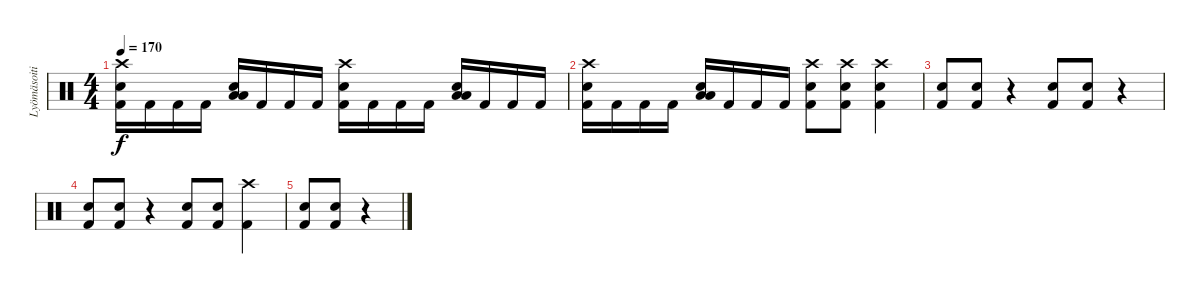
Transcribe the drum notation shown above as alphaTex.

\track ("Lyömäsoitin" "Lyömäsoiti") {instrument percussion}
\staff {score}
\articulation defaults
\ts (4 4)
\tempo 170
\clef neutral
\ks c
("Kick (hit) 2" "Snare (hit) 2" "Crash high (hit)").16{dy f} "Kick (hit) 2".16 "Kick (hit) 2".16 "Kick (hit) 2".16 ("Snare (hit) 2" "Low Floor Tom (hit)" "Low Floor Tom (hit)").16 "Kick (hit) 2".16 "Kick (hit) 2".16 "Kick (hit) 2".16 ("Kick (hit) 2" "Snare (hit) 2" "Crash high (hit)").16 "Kick (hit) 2".16 "Kick (hit) 2".16 "Kick (hit) 2".16 ("Snare (hit) 2" "Low Floor Tom (hit)" "Low Floor Tom (hit)").16 "Kick (hit) 2".16 "Kick (hit) 2".16 "Kick (hit) 2".16 |
("Kick (hit) 2" "Snare (hit) 2" "Crash high (hit)").16 "Kick (hit) 2".16 "Kick (hit) 2".16 "Kick (hit) 2".16 ("Snare (hit) 2" "Low Floor Tom (hit)" "Low Floor Tom (hit)").16 "Kick (hit) 2".16 "Kick (hit) 2".16 "Kick (hit) 2".16 ("Kick (hit) 2" "Snare (hit) 2" "Crash high (hit)").8 ("Kick (hit) 2" "Snare (hit) 2" "Crash high (hit)").8 ("Kick (hit) 2" "Snare (hit) 2" "Crash high (hit)").4 |
("Kick (hit) 2" "Snare (hit) 2").8 ("Kick (hit) 2" "Snare (hit) 2").8 r.4 ("Kick (hit) 2" "Snare (hit) 2").8 ("Kick (hit) 2" "Snare (hit) 2").8 r.4 |
("Kick (hit) 2" "Snare (hit) 2").8 ("Kick (hit) 2" "Snare (hit) 2").8 r.4 ("Kick (hit) 2" "Snare (hit) 2").8 ("Kick (hit) 2" "Snare (hit) 2").8 ("Kick (hit) 2" "Crash high (hit)").4 |
("Kick (hit) 2" "Snare (hit) 2").8 ("Kick (hit) 2" "Snare (hit) 2").8 r.4
